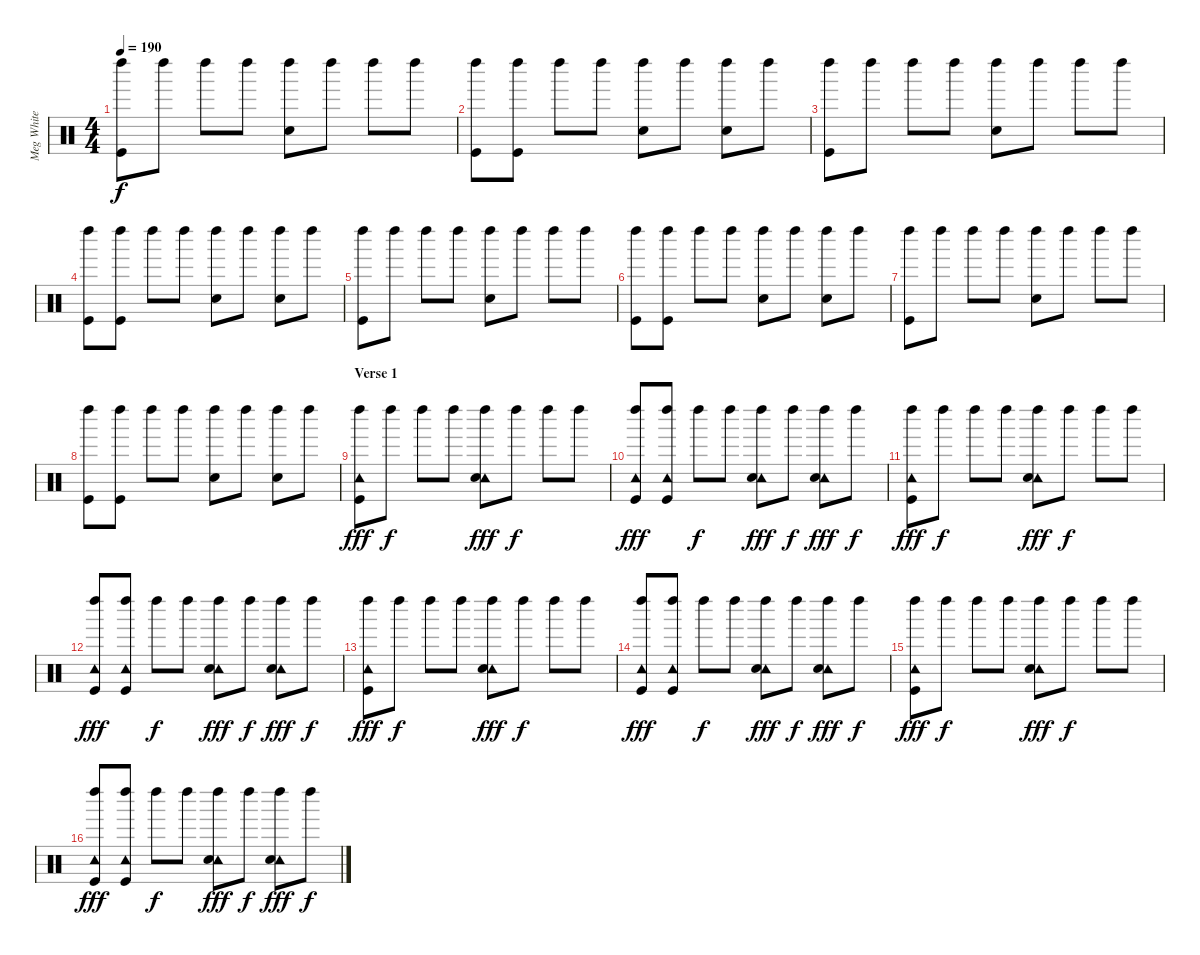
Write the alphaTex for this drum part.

\track ("Meg White" "Meg White") {instrument percussion}
\staff {score}
\articulation defaults
\ts (4 4)
\tempo 190
\clef neutral
\ks c
("Kick (hit)" "Left Maraca (hit)").8{dy f} "Left Maraca (hit)".8 "Left Maraca (hit)".8 "Left Maraca (hit)".8 ("Snare (hit) 2" "Left Maraca (hit)").8 "Left Maraca (hit)".8 "Left Maraca (hit)".8 "Left Maraca (hit)".8 |
("Kick (hit)" "Left Maraca (hit)").8 ("Kick (hit)" "Left Maraca (hit)").8 "Left Maraca (hit)".8 "Left Maraca (hit)".8 ("Snare (hit) 2" "Left Maraca (hit)").8 "Left Maraca (hit)".8 ("Snare (hit) 2" "Left Maraca (hit)").8 "Left Maraca (hit)".8 |
("Kick (hit)" "Left Maraca (hit)").8 "Left Maraca (hit)".8 "Left Maraca (hit)".8 "Left Maraca (hit)".8 ("Snare (hit) 2" "Left Maraca (hit)").8 "Left Maraca (hit)".8 "Left Maraca (hit)".8 "Left Maraca (hit)".8 |
("Kick (hit)" "Left Maraca (hit)").8 ("Kick (hit)" "Left Maraca (hit)").8 "Left Maraca (hit)".8 "Left Maraca (hit)".8 ("Snare (hit) 2" "Left Maraca (hit)").8 "Left Maraca (hit)".8 ("Snare (hit) 2" "Left Maraca (hit)").8 "Left Maraca (hit)".8 |
("Kick (hit)" "Left Maraca (hit)").8 "Left Maraca (hit)".8 "Left Maraca (hit)".8 "Left Maraca (hit)".8 ("Snare (hit) 2" "Left Maraca (hit)").8 "Left Maraca (hit)".8 "Left Maraca (hit)".8 "Left Maraca (hit)".8 |
("Kick (hit)" "Left Maraca (hit)").8 ("Kick (hit)" "Left Maraca (hit)").8 "Left Maraca (hit)".8 "Left Maraca (hit)".8 ("Snare (hit) 2" "Left Maraca (hit)").8 "Left Maraca (hit)".8 ("Snare (hit) 2" "Left Maraca (hit)").8 "Left Maraca (hit)".8 |
("Kick (hit)" "Left Maraca (hit)").8 "Left Maraca (hit)".8 "Left Maraca (hit)".8 "Left Maraca (hit)".8 ("Snare (hit) 2" "Left Maraca (hit)").8 "Left Maraca (hit)".8 "Left Maraca (hit)".8 "Left Maraca (hit)".8 |
("Kick (hit)" "Left Maraca (hit)").8 ("Kick (hit)" "Left Maraca (hit)").8 "Left Maraca (hit)".8 "Left Maraca (hit)".8 ("Snare (hit) 2" "Left Maraca (hit)").8 "Left Maraca (hit)".8 ("Snare (hit) 2" "Left Maraca (hit)").8 "Left Maraca (hit)".8 |
\section ("" "Verse 1")
("Tambourine (hit)" "Kick (hit)" "Left Maraca (hit)").8{dy fff} "Left Maraca (hit)".8{dy f} "Left Maraca (hit)".8 "Left Maraca (hit)".8 ("Tambourine (hit)" "Snare (hit) 2" "Left Maraca (hit)").8{dy fff} "Left Maraca (hit)".8{dy f} "Left Maraca (hit)".8 "Left Maraca (hit)".8 |
("Tambourine (hit)" "Kick (hit)" "Left Maraca (hit)").8{dy fff} ("Tambourine (hit)" "Kick (hit)" "Left Maraca (hit)").8 "Left Maraca (hit)".8{dy f} "Left Maraca (hit)".8 ("Tambourine (hit)" "Snare (hit) 2" "Left Maraca (hit)").8{dy fff} "Left Maraca (hit)".8{dy f} ("Tambourine (hit)" "Snare (hit) 2" "Left Maraca (hit)").8{dy fff} "Left Maraca (hit)".8{dy f} |
("Tambourine (hit)" "Kick (hit)" "Left Maraca (hit)").8{dy fff} "Left Maraca (hit)".8{dy f} "Left Maraca (hit)".8 "Left Maraca (hit)".8 ("Tambourine (hit)" "Snare (hit) 2" "Left Maraca (hit)").8{dy fff} "Left Maraca (hit)".8{dy f} "Left Maraca (hit)".8 "Left Maraca (hit)".8 |
("Tambourine (hit)" "Kick (hit)" "Left Maraca (hit)").8{dy fff} ("Tambourine (hit)" "Kick (hit)" "Left Maraca (hit)").8 "Left Maraca (hit)".8{dy f} "Left Maraca (hit)".8 ("Tambourine (hit)" "Snare (hit) 2" "Left Maraca (hit)").8{dy fff} "Left Maraca (hit)".8{dy f} ("Tambourine (hit)" "Snare (hit) 2" "Left Maraca (hit)").8{dy fff} "Left Maraca (hit)".8{dy f} |
("Tambourine (hit)" "Kick (hit)" "Left Maraca (hit)").8{dy fff} "Left Maraca (hit)".8{dy f} "Left Maraca (hit)".8 "Left Maraca (hit)".8 ("Tambourine (hit)" "Snare (hit) 2" "Left Maraca (hit)").8{dy fff} "Left Maraca (hit)".8{dy f} "Left Maraca (hit)".8 "Left Maraca (hit)".8 |
("Tambourine (hit)" "Kick (hit)" "Left Maraca (hit)").8{dy fff} ("Tambourine (hit)" "Kick (hit)" "Left Maraca (hit)").8 "Left Maraca (hit)".8{dy f} "Left Maraca (hit)".8 ("Tambourine (hit)" "Snare (hit) 2" "Left Maraca (hit)").8{dy fff} "Left Maraca (hit)".8{dy f} ("Tambourine (hit)" "Snare (hit) 2" "Left Maraca (hit)").8{dy fff} "Left Maraca (hit)".8{dy f} |
("Tambourine (hit)" "Kick (hit)" "Left Maraca (hit)").8{dy fff} "Left Maraca (hit)".8{dy f} "Left Maraca (hit)".8 "Left Maraca (hit)".8 ("Tambourine (hit)" "Snare (hit) 2" "Left Maraca (hit)").8{dy fff} "Left Maraca (hit)".8{dy f} "Left Maraca (hit)".8 "Left Maraca (hit)".8 |
("Tambourine (hit)" "Kick (hit)" "Left Maraca (hit)").8{dy fff} ("Tambourine (hit)" "Kick (hit)" "Left Maraca (hit)").8 "Left Maraca (hit)".8{dy f} "Left Maraca (hit)".8 ("Tambourine (hit)" "Snare (hit) 2" "Left Maraca (hit)").8{dy fff} "Left Maraca (hit)".8{dy f} ("Tambourine (hit)" "Snare (hit) 2" "Left Maraca (hit)").8{dy fff} "Left Maraca (hit)".8{dy f}
